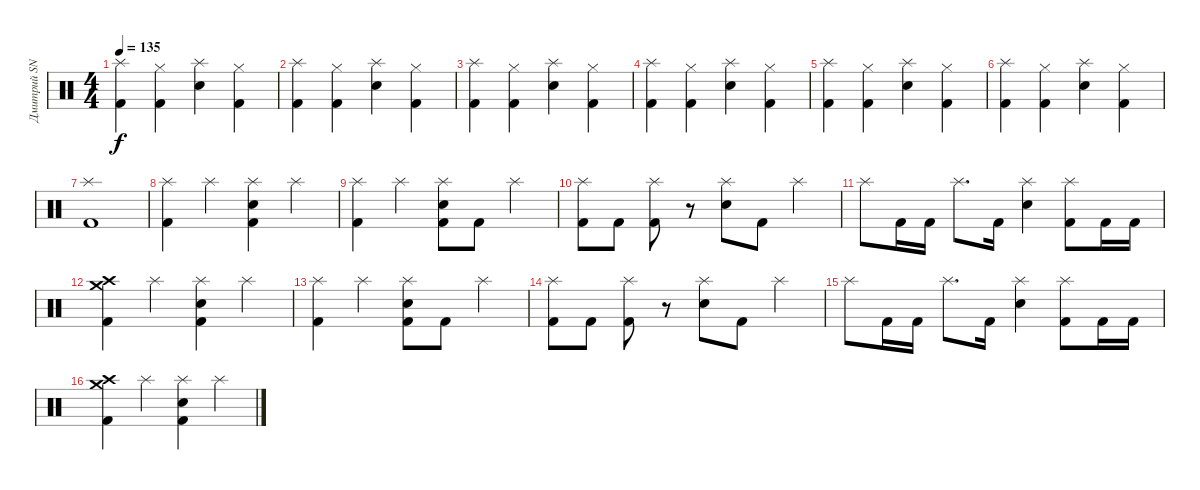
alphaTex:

\track ("Дмитрий SNAKE Хакимов" "Дмитрий SN") {instrument percussion}
\staff {score}
\articulation defaults
\ts (4 4)
\tempo 135
\clef neutral
\ks c
("Splash (hit)" "Kick (hit) 2").4{dy f} ("Hi-Hat (closed)" "Kick (hit) 2").4 ("Splash (hit)" "Snare (hit) 2").4 ("Hi-Hat (closed)" "Kick (hit) 2").4 |
("Splash (hit)" "Kick (hit) 2").4 ("Hi-Hat (closed)" "Kick (hit) 2").4 ("Splash (hit)" "Snare (hit) 2").4 ("Hi-Hat (closed)" "Kick (hit) 2").4 |
("Splash (hit)" "Kick (hit) 2").4 ("Hi-Hat (closed)" "Kick (hit) 2").4 ("Splash (hit)" "Snare (hit) 2").4 ("Hi-Hat (closed)" "Kick (hit) 2").4 |
("Splash (hit)" "Kick (hit) 2").4 ("Hi-Hat (closed)" "Kick (hit) 2").4 ("Splash (hit)" "Snare (hit) 2").4 ("Hi-Hat (closed)" "Kick (hit) 2").4 |
("Splash (hit)" "Kick (hit) 2").4 ("Hi-Hat (closed)" "Kick (hit) 2").4 ("Splash (hit)" "Snare (hit) 2").4 ("Hi-Hat (closed)" "Kick (hit) 2").4 |
("Splash (hit)" "Kick (hit) 2").4 ("Hi-Hat (closed)" "Kick (hit) 2").4 ("Splash (hit)" "Snare (hit) 2").4 ("Hi-Hat (closed)" "Kick (hit) 2").4 |
("Splash (hit)" "Kick (hit) 2").1 |
("Splash (hit)" "Kick (hit) 2").4 "Splash (hit)".4 ("Splash (hit)" "Snare (hit) 2" "Kick (hit) 2").4 "Splash (hit)".4 |
("Splash (hit)" "Kick (hit) 2").4 "Splash (hit)".4 ("Splash (hit)" "Snare (hit) 2" "Kick (hit) 2").8 "Kick (hit) 2".8 "Splash (hit)".4 |
("Splash (hit)" "Kick (hit) 2").8 "Kick (hit) 2".8 ("Splash (hit)" "Kick (hit) 2").8 r.8 ("Splash (hit)" "Snare (hit) 2").8 "Kick (hit) 2".8 "Splash (hit)".4 |
"Splash (hit)".8 "Kick (hit) 2".16 "Kick (hit) 2".16 "Splash (hit)".8{d} "Kick (hit) 2".16 ("Splash (hit)" "Snare (hit) 2").4 ("Splash (hit)" "Kick (hit) 2").8 "Kick (hit) 2".16 "Kick (hit) 2".16 |
("Crash high (hit)" "Crash medium (hit)" "Kick (hit) 2").4 "Splash (hit)".4 ("Splash (hit)" "Snare (hit) 2" "Kick (hit) 2").4 "Splash (hit)".4 |
("Splash (hit)" "Kick (hit) 2").4 "Splash (hit)".4 ("Splash (hit)" "Snare (hit) 2" "Kick (hit) 2").8 "Kick (hit) 2".8 "Splash (hit)".4 |
("Splash (hit)" "Kick (hit) 2").8 "Kick (hit) 2".8 ("Splash (hit)" "Kick (hit) 2").8 r.8 ("Splash (hit)" "Snare (hit) 2").8 "Kick (hit) 2".8 "Splash (hit)".4 |
"Splash (hit)".8 "Kick (hit) 2".16 "Kick (hit) 2".16 "Splash (hit)".8{d} "Kick (hit) 2".16 ("Splash (hit)" "Snare (hit) 2").4 ("Splash (hit)" "Kick (hit) 2").8 "Kick (hit) 2".16 "Kick (hit) 2".16 |
("Crash high (hit)" "Crash medium (hit)" "Kick (hit) 2").4 "Splash (hit)".4 ("Splash (hit)" "Snare (hit) 2" "Kick (hit) 2").4 "Splash (hit)".4
